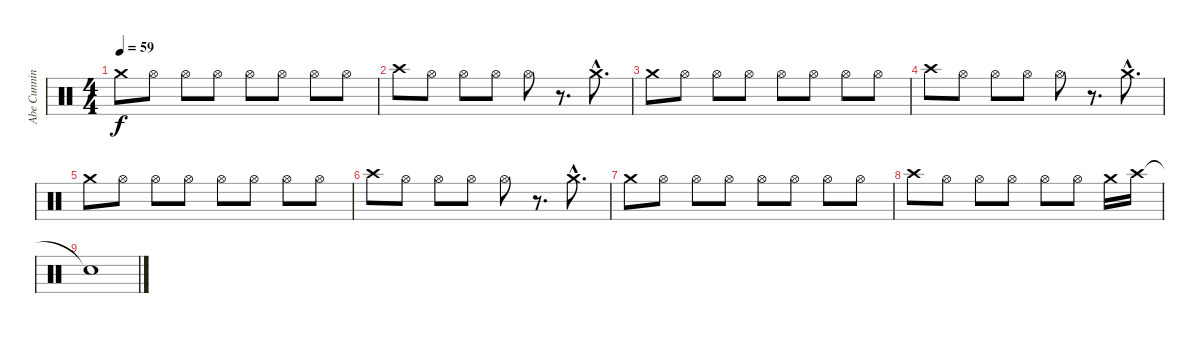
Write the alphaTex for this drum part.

\track ("Abe Cunningham Cymbals" "Abe Cunnin") {instrument percussion}
\staff {score}
\articulation defaults
\ts (4 4)
\tempo 59
\clef neutral
\ks c "Crash medium (hit)".8{dy f} "Hi-Hat (open)".8 "Hi-Hat (open)".8 "Hi-Hat (open)".8 "Hi-Hat (open)".8 "Hi-Hat (open)".8 "Hi-Hat (open)".8 "Hi-Hat (open)".8
|
"Crash high (hit)".8 "Hi-Hat (open)".8 "Hi-Hat (open)".8 "Hi-Hat (open)".8 "Hi-Hat (open)".8 r.8{d} "Crash medium (hit)"{hac}.8{d} |
"Crash medium (hit)".8 "Hi-Hat (open)".8 "Hi-Hat (open)".8 "Hi-Hat (open)".8 "Hi-Hat (open)".8 "Hi-Hat (open)".8 "Hi-Hat (open)".8 "Hi-Hat (open)".8 |
"Crash high (hit)".8 "Hi-Hat (open)".8 "Hi-Hat (open)".8 "Hi-Hat (open)".8 "Hi-Hat (open)".8 r.8{d} "Crash medium (hit)"{hac}.8{d} |
"Crash medium (hit)".8 "Hi-Hat (open)".8 "Hi-Hat (open)".8 "Hi-Hat (open)".8 "Hi-Hat (open)".8 "Hi-Hat (open)".8 "Hi-Hat (open)".8 "Hi-Hat (open)".8 |
"Crash high (hit)".8 "Hi-Hat (open)".8 "Hi-Hat (open)".8 "Hi-Hat (open)".8 "Hi-Hat (open)".8 r.8{d} "Crash medium (hit)"{hac}.8{d} |
"Crash medium (hit)".8 "Hi-Hat (open)".8 "Hi-Hat (open)".8 "Hi-Hat (open)".8 "Hi-Hat (open)".8 "Hi-Hat (open)".8 "Hi-Hat (open)".8 "Hi-Hat (open)".8 |
"Crash high (hit)".8 "Hi-Hat (open)".8 "Hi-Hat (open)".8 "Hi-Hat (open)".8 "Hi-Hat (open)".8 "Hi-Hat (open)".8 "Crash medium (hit)".16 "Crash high (hit)".16 |
"Snare (hit)"{t}.1
